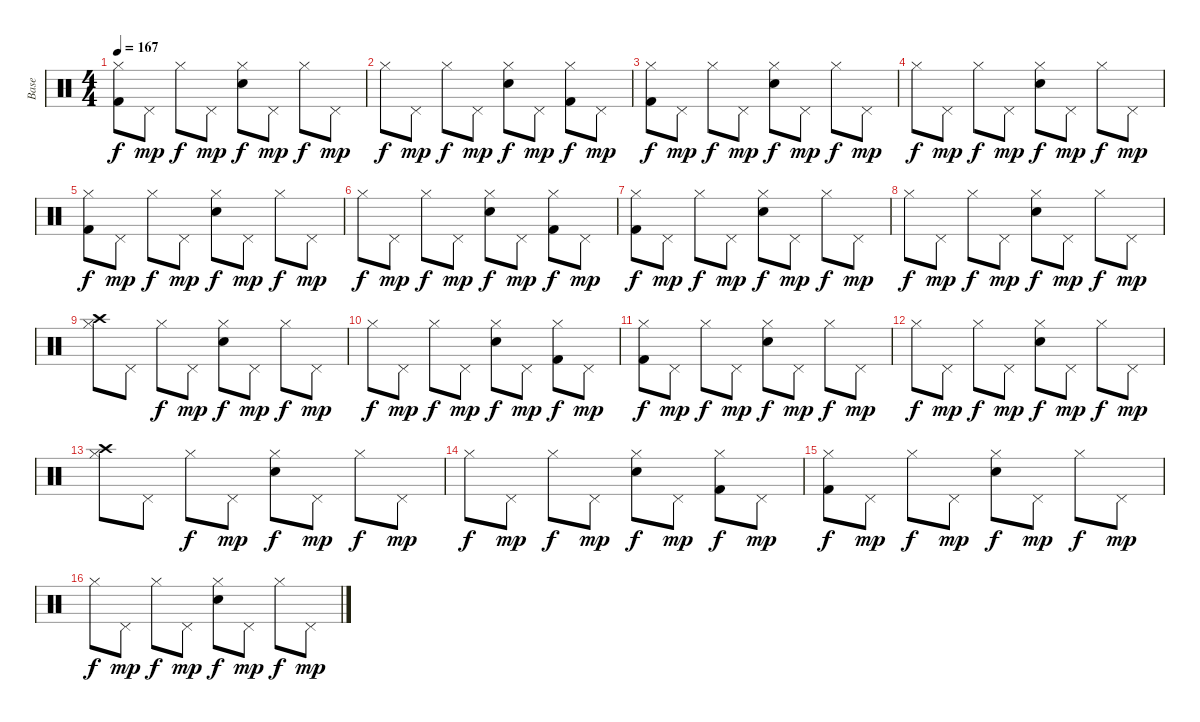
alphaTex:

\track ("Base" "Base") {instrument percussion}
\staff {score}
\articulation defaults
\ts (4 4)
\tempo 167
\clef neutral
\ks c
("Hi-Hat (closed)" "Kick (hit) 2").8{dy f} "Pedal Hi-Hat (hit)".8{dy mp} "Hi-Hat (closed)".8{dy f} "Pedal Hi-Hat (hit)".8{dy mp} ("Electric Snare (hit)" "Hi-Hat (closed)").8{dy f} "Pedal Hi-Hat (hit)".8{dy mp} "Hi-Hat (closed)".8{dy f} "Pedal Hi-Hat (hit)".8{dy mp} |
"Hi-Hat (closed)".8{dy f} "Pedal Hi-Hat (hit)".8{dy mp} "Hi-Hat (closed)".8{dy f} "Pedal Hi-Hat (hit)".8{dy mp} ("Electric Snare (hit)" "Hi-Hat (closed)").8{dy f} "Pedal Hi-Hat (hit)".8{dy mp} ("Hi-Hat (closed)" "Kick (hit) 2").8{dy f} "Pedal Hi-Hat (hit)".8{dy mp} |
("Hi-Hat (closed)" "Kick (hit) 2").8{dy f} "Pedal Hi-Hat (hit)".8{dy mp} "Hi-Hat (closed)".8{dy f} "Pedal Hi-Hat (hit)".8{dy mp} ("Electric Snare (hit)" "Hi-Hat (closed)").8{dy f} "Pedal Hi-Hat (hit)".8{dy mp} "Hi-Hat (closed)".8{dy f} "Pedal Hi-Hat (hit)".8{dy mp} |
"Hi-Hat (closed)".8{dy f} "Pedal Hi-Hat (hit)".8{dy mp} "Hi-Hat (closed)".8{dy f} "Pedal Hi-Hat (hit)".8{dy mp} ("Electric Snare (hit)" "Hi-Hat (closed)").8{dy f} "Pedal Hi-Hat (hit)".8{dy mp} "Hi-Hat (closed)".8{dy f} "Pedal Hi-Hat (hit)".8{dy mp} |
("Hi-Hat (closed)" "Kick (hit) 2").8{dy f} "Pedal Hi-Hat (hit)".8{dy mp} "Hi-Hat (closed)".8{dy f} "Pedal Hi-Hat (hit)".8{dy mp} ("Electric Snare (hit)" "Hi-Hat (closed)").8{dy f} "Pedal Hi-Hat (hit)".8{dy mp} "Hi-Hat (closed)".8{dy f} "Pedal Hi-Hat (hit)".8{dy mp} |
"Hi-Hat (closed)".8{dy f} "Pedal Hi-Hat (hit)".8{dy mp} "Hi-Hat (closed)".8{dy f} "Pedal Hi-Hat (hit)".8{dy mp} ("Electric Snare (hit)" "Hi-Hat (closed)").8{dy f} "Pedal Hi-Hat (hit)".8{dy mp} ("Hi-Hat (closed)" "Kick (hit) 2").8{dy f} "Pedal Hi-Hat (hit)".8{dy mp} |
("Hi-Hat (closed)" "Kick (hit) 2").8{dy f} "Pedal Hi-Hat (hit)".8{dy mp} "Hi-Hat (closed)".8{dy f} "Pedal Hi-Hat (hit)".8{dy mp} ("Electric Snare (hit)" "Hi-Hat (closed)").8{dy f} "Pedal Hi-Hat (hit)".8{dy mp} "Hi-Hat (closed)".8{dy f} "Pedal Hi-Hat (hit)".8{dy mp} |
"Hi-Hat (closed)".8{dy f} "Pedal Hi-Hat (hit)".8{dy mp} "Hi-Hat (closed)".8{dy f} "Pedal Hi-Hat (hit)".8{dy mp} ("Electric Snare (hit)" "Hi-Hat (closed)").8{dy f} "Pedal Hi-Hat (hit)".8{dy mp} "Hi-Hat (closed)".8{dy f} "Pedal Hi-Hat (hit)".8{dy mp} |
("Hi-Hat (closed)" "Crash high (hit)").8 "Pedal Hi-Hat (hit)".8 "Hi-Hat (closed)".8{dy f} "Pedal Hi-Hat (hit)".8{dy mp} ("Electric Snare (hit)" "Hi-Hat (closed)").8{dy f} "Pedal Hi-Hat (hit)".8{dy mp} "Hi-Hat (closed)".8{dy f} "Pedal Hi-Hat (hit)".8{dy mp} |
"Hi-Hat (closed)".8{dy f} "Pedal Hi-Hat (hit)".8{dy mp} "Hi-Hat (closed)".8{dy f} "Pedal Hi-Hat (hit)".8{dy mp} ("Electric Snare (hit)" "Hi-Hat (closed)").8{dy f} "Pedal Hi-Hat (hit)".8{dy mp} ("Hi-Hat (closed)" "Kick (hit) 2").8{dy f} "Pedal Hi-Hat (hit)".8{dy mp} |
("Hi-Hat (closed)" "Kick (hit) 2").8{dy f} "Pedal Hi-Hat (hit)".8{dy mp} "Hi-Hat (closed)".8{dy f} "Pedal Hi-Hat (hit)".8{dy mp} ("Electric Snare (hit)" "Hi-Hat (closed)").8{dy f} "Pedal Hi-Hat (hit)".8{dy mp} "Hi-Hat (closed)".8{dy f} "Pedal Hi-Hat (hit)".8{dy mp} |
"Hi-Hat (closed)".8{dy f} "Pedal Hi-Hat (hit)".8{dy mp} "Hi-Hat (closed)".8{dy f} "Pedal Hi-Hat (hit)".8{dy mp} ("Electric Snare (hit)" "Hi-Hat (closed)").8{dy f} "Pedal Hi-Hat (hit)".8{dy mp} "Hi-Hat (closed)".8{dy f} "Pedal Hi-Hat (hit)".8{dy mp} |
("Hi-Hat (closed)" "Crash high (hit)").8 "Pedal Hi-Hat (hit)".8 "Hi-Hat (closed)".8{dy f} "Pedal Hi-Hat (hit)".8{dy mp} ("Electric Snare (hit)" "Hi-Hat (closed)").8{dy f} "Pedal Hi-Hat (hit)".8{dy mp} "Hi-Hat (closed)".8{dy f} "Pedal Hi-Hat (hit)".8{dy mp} |
"Hi-Hat (closed)".8{dy f} "Pedal Hi-Hat (hit)".8{dy mp} "Hi-Hat (closed)".8{dy f} "Pedal Hi-Hat (hit)".8{dy mp} ("Electric Snare (hit)" "Hi-Hat (closed)").8{dy f} "Pedal Hi-Hat (hit)".8{dy mp} ("Hi-Hat (closed)" "Kick (hit) 2").8{dy f} "Pedal Hi-Hat (hit)".8{dy mp} |
("Hi-Hat (closed)" "Kick (hit) 2").8{dy f} "Pedal Hi-Hat (hit)".8{dy mp} "Hi-Hat (closed)".8{dy f} "Pedal Hi-Hat (hit)".8{dy mp} ("Electric Snare (hit)" "Hi-Hat (closed)").8{dy f} "Pedal Hi-Hat (hit)".8{dy mp} "Hi-Hat (closed)".8{dy f} "Pedal Hi-Hat (hit)".8{dy mp} |
"Hi-Hat (closed)".8{dy f} "Pedal Hi-Hat (hit)".8{dy mp} "Hi-Hat (closed)".8{dy f} "Pedal Hi-Hat (hit)".8{dy mp} ("Electric Snare (hit)" "Hi-Hat (closed)").8{dy f} "Pedal Hi-Hat (hit)".8{dy mp} "Hi-Hat (closed)".8{dy f} "Pedal Hi-Hat (hit)".8{dy mp}
